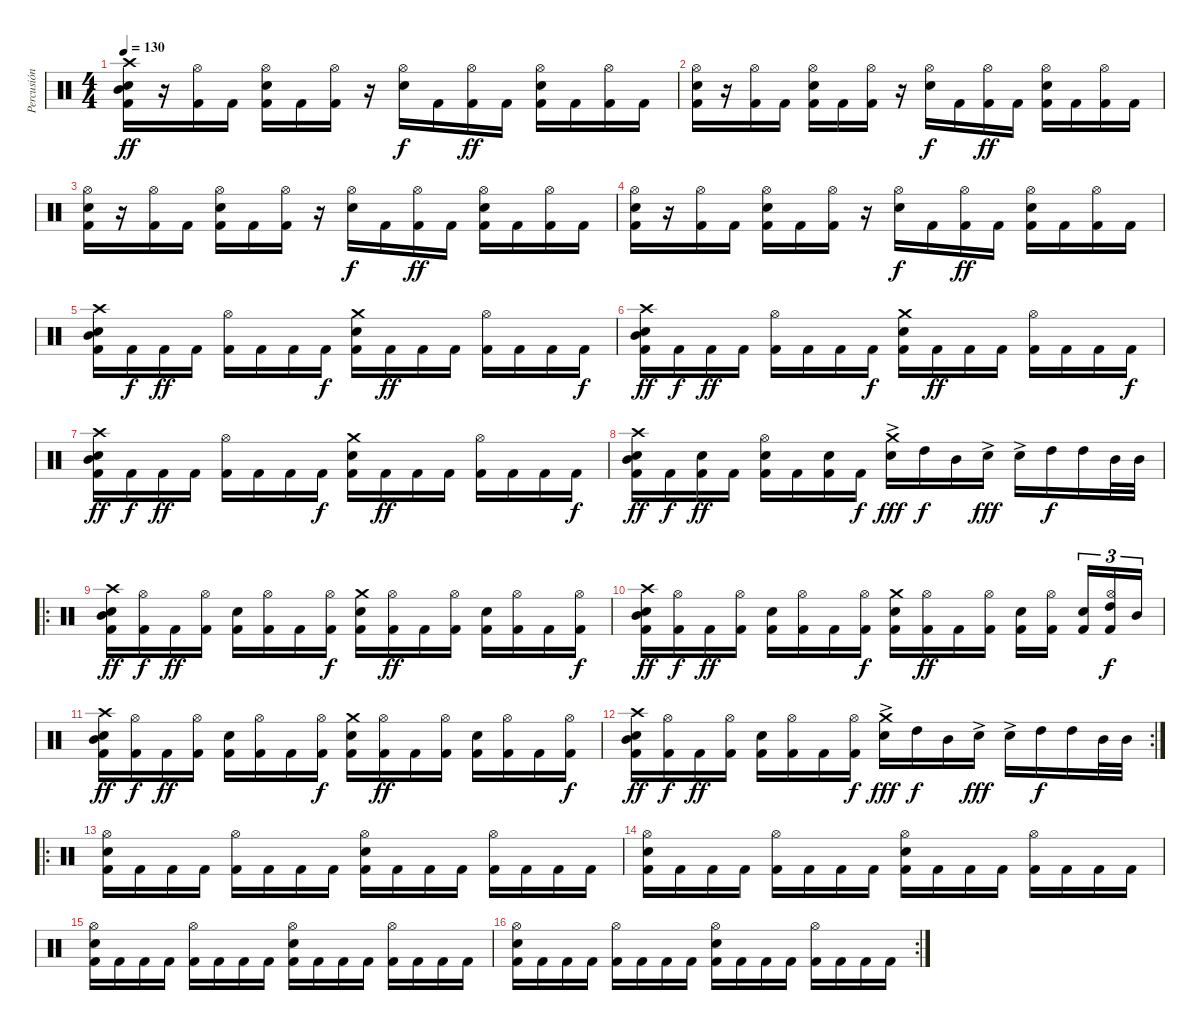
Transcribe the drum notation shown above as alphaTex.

\track ("Percusión" "Percusión") {instrument percussion}
\staff {score}
\articulation defaults
\ts (4 4)
\tempo 130
\clef neutral
\ks c
("Crash high (hit)" "Mid Tom (hit)" "Electric Snare (hit)" "Kick (hit) 2").16{dy ff} r.16 ("Hi-Hat (open)" "Kick (hit) 2").16 "Kick (hit) 2".16 ("Hi-Hat (open)" "Electric Snare (hit)" "Kick (hit) 2").16 "Kick (hit) 2".16 ("Hi-Hat (open)" "Kick (hit) 2").16 r.16 ("Hi-Hat (open)" "Electric Snare (hit)").16{dy f} "Kick (hit) 2".16 ("Hi-Hat (open)" "Kick (hit) 2").16{dy ff} "Kick (hit) 2".16 ("Hi-Hat (open)" "Electric Snare (hit)" "Kick (hit) 2").16 "Kick (hit) 2".16 ("Hi-Hat (open)" "Kick (hit) 2").16 "Kick (hit) 2".16 |
("Hi-Hat (open)" "Electric Snare (hit)" "Kick (hit) 2").16 r.16 ("Hi-Hat (open)" "Kick (hit) 2").16 "Kick (hit) 2".16 ("Hi-Hat (open)" "Electric Snare (hit)" "Kick (hit) 2").16 "Kick (hit) 2".16 ("Hi-Hat (open)" "Kick (hit) 2").16 r.16 ("Hi-Hat (open)" "Electric Snare (hit)").16{dy f} "Kick (hit) 2".16 ("Hi-Hat (open)" "Kick (hit) 2").16{dy ff} "Kick (hit) 2".16 ("Hi-Hat (open)" "Electric Snare (hit)" "Kick (hit) 2").16 "Kick (hit) 2".16 ("Hi-Hat (open)" "Kick (hit) 2").16 "Kick (hit) 2".16 |
("Hi-Hat (open)" "Electric Snare (hit)" "Kick (hit) 2").16 r.16 ("Hi-Hat (open)" "Kick (hit) 2").16 "Kick (hit) 2".16 ("Hi-Hat (open)" "Electric Snare (hit)" "Kick (hit) 2").16 "Kick (hit) 2".16 ("Hi-Hat (open)" "Kick (hit) 2").16 r.16 ("Hi-Hat (open)" "Electric Snare (hit)").16{dy f} "Kick (hit) 2".16 ("Hi-Hat (open)" "Kick (hit) 2").16{dy ff} "Kick (hit) 2".16 ("Hi-Hat (open)" "Electric Snare (hit)" "Kick (hit) 2").16 "Kick (hit) 2".16 ("Hi-Hat (open)" "Kick (hit) 2").16 "Kick (hit) 2".16 |
("Hi-Hat (open)" "Electric Snare (hit)" "Kick (hit) 2").16 r.16 ("Hi-Hat (open)" "Kick (hit) 2").16 "Kick (hit) 2".16 ("Hi-Hat (open)" "Electric Snare (hit)" "Kick (hit) 2").16 "Kick (hit) 2".16 ("Hi-Hat (open)" "Kick (hit) 2").16 r.16 ("Hi-Hat (open)" "Electric Snare (hit)").16{dy f} "Kick (hit) 2".16 ("Hi-Hat (open)" "Kick (hit) 2").16{dy ff} "Kick (hit) 2".16 ("Hi-Hat (open)" "Electric Snare (hit)" "Kick (hit) 2").16 "Kick (hit) 2".16 ("Hi-Hat (open)" "Kick (hit) 2").16 "Kick (hit) 2".16 |
("Crash high (hit)" "Mid Tom (hit)" "Electric Snare (hit)" "Kick (hit) 2").16 "Kick (hit) 2".16{dy f} "Kick (hit) 2".16{dy ff} "Kick (hit) 2".16 ("Hi-Hat (open)" "Kick (hit) 2").16 "Kick (hit) 2".16 "Kick (hit) 2".16 "Kick (hit) 2".16{dy f} ("Crash medium (hit)" "Electric Snare (hit)" "Kick (hit) 2").16 "Kick (hit) 2".16{dy ff} "Kick (hit) 2".16 "Kick (hit) 2".16 ("Hi-Hat (open)" "Kick (hit) 2").16 "Kick (hit) 2".16 "Kick (hit) 2".16 "Kick (hit) 2".16{dy f} |
("Crash high (hit)" "Mid Tom (hit)" "Electric Snare (hit)" "Kick (hit) 2").16{dy ff} "Kick (hit) 2".16{dy f} "Kick (hit) 2".16{dy ff} "Kick (hit) 2".16 ("Hi-Hat (open)" "Kick (hit) 2").16 "Kick (hit) 2".16 "Kick (hit) 2".16 "Kick (hit) 2".16{dy f} ("Crash medium (hit)" "Electric Snare (hit)" "Kick (hit) 2").16 "Kick (hit) 2".16{dy ff} "Kick (hit) 2".16 "Kick (hit) 2".16 ("Hi-Hat (open)" "Kick (hit) 2").16 "Kick (hit) 2".16 "Kick (hit) 2".16 "Kick (hit) 2".16{dy f} |
("Crash high (hit)" "Mid Tom (hit)" "Electric Snare (hit)" "Kick (hit) 2").16{dy ff} "Kick (hit) 2".16{dy f} "Kick (hit) 2".16{dy ff} "Kick (hit) 2".16 ("Hi-Hat (open)" "Kick (hit) 2").16 "Kick (hit) 2".16 "Kick (hit) 2".16 "Kick (hit) 2".16{dy f} ("Crash medium (hit)" "Electric Snare (hit)" "Kick (hit) 2").16 "Kick (hit) 2".16{dy ff} "Kick (hit) 2".16 "Kick (hit) 2".16 ("Hi-Hat (open)" "Kick (hit) 2").16 "Kick (hit) 2".16 "Kick (hit) 2".16 "Kick (hit) 2".16{dy f} |
("Crash high (hit)" "Mid Tom (hit)" "Electric Snare (hit)" "Kick (hit) 2").16{dy ff} "Kick (hit) 2".16{dy f} ("Electric Snare (hit)" "Kick (hit) 2").16{dy ff} "Kick (hit) 2".16 ("Hi-Hat (open)" "Electric Snare (hit)" "Kick (hit) 2").16 "Kick (hit) 2".16 ("Electric Snare (hit)" "Kick (hit) 2").16 "Kick (hit) 2".16{dy f} ("Crash medium (hit)" "Electric Snare (hit)"{ac}).16{dy fff} "High Tom (hit)".16{dy f} "Mid Tom (hit)".16 "Electric Snare (hit)"{ac}.16{dy fff} "Electric Snare (hit)"{ac}.16 "High Tom (hit)".16{dy f} "High Tom (hit)".16 "Mid Tom (hit)".32 "Mid Tom (hit)".32 |
\ro
("Crash high (hit)" "Mid Tom (hit)" "Electric Snare (hit)" "Kick (hit) 2").16{dy ff} ("Hi-Hat (open)" "Kick (hit) 2").16{dy f} "Kick (hit) 2".16{dy ff} ("Hi-Hat (open)" "Kick (hit) 2").16 ("Electric Snare (hit)" "Kick (hit) 2").16 ("Hi-Hat (open)" "Kick (hit) 2").16 "Kick (hit) 2".16 ("Hi-Hat (open)" "Kick (hit) 2").16{dy f} ("Crash medium (hit)" "Electric Snare (hit)" "Kick (hit) 2").16 ("Hi-Hat (open)" "Kick (hit) 2").16{dy ff} "Kick (hit) 2".16 ("Hi-Hat (open)" "Kick (hit) 2").16 ("Electric Snare (hit)" "Kick (hit) 2").16 ("Hi-Hat (open)" "Kick (hit) 2").16 "Kick (hit) 2".16 ("Hi-Hat (open)" "Kick (hit) 2").16{dy f} |
("Crash high (hit)" "Mid Tom (hit)" "Electric Snare (hit)" "Kick (hit) 2").16{dy ff} ("Hi-Hat (open)" "Kick (hit) 2").16{dy f} "Kick (hit) 2".16{dy ff} ("Hi-Hat (open)" "Kick (hit) 2").16 ("Electric Snare (hit)" "Kick (hit) 2").16 ("Hi-Hat (open)" "Kick (hit) 2").16 "Kick (hit) 2".16 ("Hi-Hat (open)" "Kick (hit) 2").16{dy f} ("Crash medium (hit)" "Electric Snare (hit)" "Kick (hit) 2").16 ("Hi-Hat (open)" "Kick (hit) 2").16{dy ff} "Kick (hit) 2".16 ("Hi-Hat (open)" "Kick (hit) 2").16 ("Electric Snare (hit)" "Kick (hit) 2").16 ("Hi-Hat (open)" "Kick (hit) 2").16 ("Electric Snare (hit)" "Kick (hit) 2").16{tu (3 2)} ("Hi-Hat (open)" "High Tom (hit)" "Kick (hit) 2").16{tu (3 2) dy f} "Mid Tom (hit)".16{tu (3 2)} |
("Crash high (hit)" "Mid Tom (hit)" "Electric Snare (hit)" "Kick (hit) 2").16{dy ff} ("Hi-Hat (open)" "Kick (hit) 2").16{dy f} "Kick (hit) 2".16{dy ff} ("Hi-Hat (open)" "Kick (hit) 2").16 ("Electric Snare (hit)" "Kick (hit) 2").16 ("Hi-Hat (open)" "Kick (hit) 2").16 "Kick (hit) 2".16 ("Hi-Hat (open)" "Kick (hit) 2").16{dy f} ("Crash medium (hit)" "Electric Snare (hit)" "Kick (hit) 2").16 ("Hi-Hat (open)" "Kick (hit) 2").16{dy ff} "Kick (hit) 2".16 ("Hi-Hat (open)" "Kick (hit) 2").16 ("Electric Snare (hit)" "Kick (hit) 2").16 ("Hi-Hat (open)" "Kick (hit) 2").16 "Kick (hit) 2".16 ("Hi-Hat (open)" "Kick (hit) 2").16{dy f} |
\rc 2
("Crash high (hit)" "Mid Tom (hit)" "Electric Snare (hit)" "Kick (hit) 2").16{dy ff} ("Hi-Hat (open)" "Kick (hit) 2").16{dy f} "Kick (hit) 2".16{dy ff} ("Hi-Hat (open)" "Kick (hit) 2").16 ("Electric Snare (hit)" "Kick (hit) 2").16 ("Hi-Hat (open)" "Kick (hit) 2").16 "Kick (hit) 2".16 ("Hi-Hat (open)" "Kick (hit) 2").16{dy f} ("Crash medium (hit)" "Electric Snare (hit)"{ac}).16{dy fff} "High Tom (hit)".16{dy f} "Mid Tom (hit)".16 "Electric Snare (hit)"{ac}.16{dy fff} "Electric Snare (hit)"{ac}.16 "High Tom (hit)".16{dy f} "High Tom (hit)".16 "Mid Tom (hit)".32 "Mid Tom (hit)".32 |
\ro
("Hi-Hat (open)" "Electric Snare (hit)" "Kick (hit) 2").16 "Kick (hit) 2".16 "Kick (hit) 2".16 "Kick (hit) 2".16 ("Hi-Hat (open)" "Kick (hit) 2").16 "Kick (hit) 2".16 "Kick (hit) 2".16 "Kick (hit) 2".16 ("Hi-Hat (open)" "Electric Snare (hit)" "Kick (hit) 2").16 "Kick (hit) 2".16 "Kick (hit) 2".16 "Kick (hit) 2".16 ("Hi-Hat (open)" "Kick (hit) 2").16 "Kick (hit) 2".16 "Kick (hit) 2".16 "Kick (hit) 2".16 |
("Hi-Hat (open)" "Electric Snare (hit)" "Kick (hit) 2").16 "Kick (hit) 2".16 "Kick (hit) 2".16 "Kick (hit) 2".16 ("Hi-Hat (open)" "Kick (hit) 2").16 "Kick (hit) 2".16 "Kick (hit) 2".16 "Kick (hit) 2".16 ("Hi-Hat (open)" "Electric Snare (hit)" "Kick (hit) 2").16 "Kick (hit) 2".16 "Kick (hit) 2".16 "Kick (hit) 2".16 ("Hi-Hat (open)" "Kick (hit) 2").16 "Kick (hit) 2".16 "Kick (hit) 2".16 "Kick (hit) 2".16 |
("Hi-Hat (open)" "Electric Snare (hit)" "Kick (hit) 2").16 "Kick (hit) 2".16 "Kick (hit) 2".16 "Kick (hit) 2".16 ("Hi-Hat (open)" "Kick (hit) 2").16 "Kick (hit) 2".16 "Kick (hit) 2".16 "Kick (hit) 2".16 ("Hi-Hat (open)" "Electric Snare (hit)" "Kick (hit) 2").16 "Kick (hit) 2".16 "Kick (hit) 2".16 "Kick (hit) 2".16 ("Hi-Hat (open)" "Kick (hit) 2").16 "Kick (hit) 2".16 "Kick (hit) 2".16 "Kick (hit) 2".16 |
\rc 2
("Hi-Hat (open)" "Electric Snare (hit)" "Kick (hit) 2").16 "Kick (hit) 2".16 "Kick (hit) 2".16 "Kick (hit) 2".16 ("Hi-Hat (open)" "Kick (hit) 2").16 "Kick (hit) 2".16 "Kick (hit) 2".16 "Kick (hit) 2".16 ("Hi-Hat (open)" "Electric Snare (hit)" "Kick (hit) 2").16 "Kick (hit) 2".16 "Kick (hit) 2".16 "Kick (hit) 2".16 ("Hi-Hat (open)" "Kick (hit) 2").16 "Kick (hit) 2".16 "Kick (hit) 2".16 "Kick (hit) 2".16
